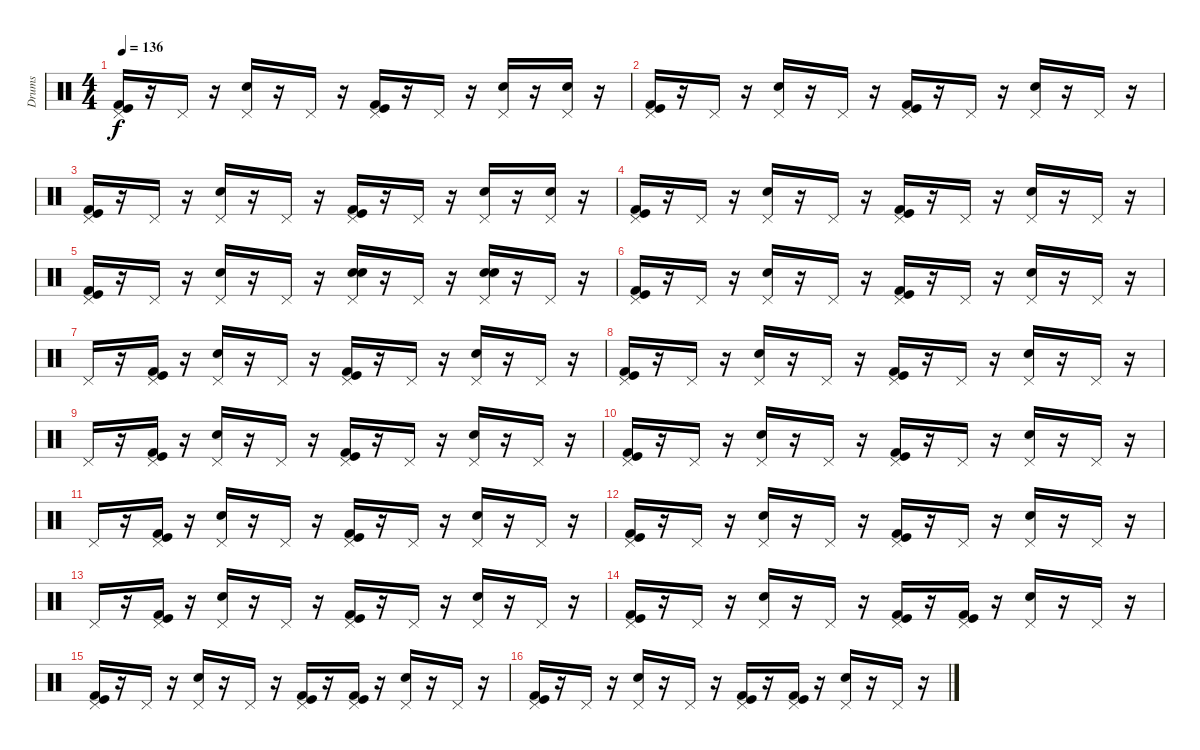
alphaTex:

\track ("Drums" "Drums") {instrument percussion}
\staff {score}
\articulation defaults
\ts (4 4)
\tempo 136
\clef neutral
\ks c
("Kick (hit) 2" "Kick (hit)" "Pedal Hi-Hat (hit)").16{dy f} r.16 "Pedal Hi-Hat (hit)".16 r.16 ("Snare (hit) 2" "Pedal Hi-Hat (hit)").16 r.16 "Pedal Hi-Hat (hit)".16 r.16 ("Kick (hit) 2" "Kick (hit)" "Pedal Hi-Hat (hit)").16 r.16 "Pedal Hi-Hat (hit)".16 r.16 ("Snare (hit) 2" "Pedal Hi-Hat (hit)").16 r.16 ("Snare (hit) 2" "Pedal Hi-Hat (hit)").16 r.16 |
("Kick (hit) 2" "Kick (hit)" "Pedal Hi-Hat (hit)").16 r.16 "Pedal Hi-Hat (hit)".16 r.16 ("Snare (hit) 2" "Pedal Hi-Hat (hit)").16 r.16 "Pedal Hi-Hat (hit)".16 r.16 ("Kick (hit) 2" "Kick (hit)" "Pedal Hi-Hat (hit)").16 r.16 "Pedal Hi-Hat (hit)".16 r.16 ("Snare (hit) 2" "Pedal Hi-Hat (hit)").16 r.16 "Pedal Hi-Hat (hit)".16 r.16 |
("Kick (hit) 2" "Kick (hit)" "Pedal Hi-Hat (hit)").16 r.16 "Pedal Hi-Hat (hit)".16 r.16 ("Snare (hit) 2" "Pedal Hi-Hat (hit)").16 r.16 "Pedal Hi-Hat (hit)".16 r.16 ("Kick (hit) 2" "Kick (hit)" "Pedal Hi-Hat (hit)").16 r.16 "Pedal Hi-Hat (hit)".16 r.16 ("Snare (hit) 2" "Pedal Hi-Hat (hit)").16 r.16 ("Snare (hit) 2" "Pedal Hi-Hat (hit)").16 r.16 |
("Kick (hit) 2" "Kick (hit)" "Pedal Hi-Hat (hit)").16 r.16 "Pedal Hi-Hat (hit)".16 r.16 ("Snare (hit) 2" "Pedal Hi-Hat (hit)").16 r.16 "Pedal Hi-Hat (hit)".16 r.16 ("Kick (hit) 2" "Kick (hit)" "Pedal Hi-Hat (hit)").16 r.16 "Pedal Hi-Hat (hit)".16 r.16 ("Snare (hit) 2" "Pedal Hi-Hat (hit)").16 r.16 "Pedal Hi-Hat (hit)".16 r.16 |
("Kick (hit) 2" "Kick (hit)" "Pedal Hi-Hat (hit)").16 r.16 "Pedal Hi-Hat (hit)".16 r.16 ("Snare (hit) 2" "Pedal Hi-Hat (hit)").16 r.16 "Pedal Hi-Hat (hit)".16 r.16 ("Snare (hit) 2" "Snare (hit) 2" "Pedal Hi-Hat (hit)").16 r.16 "Pedal Hi-Hat (hit)".16 r.16 ("Snare (hit) 2" "Snare (hit) 2" "Pedal Hi-Hat (hit)").16 r.16 "Pedal Hi-Hat (hit)".16 r.16 |
("Kick (hit) 2" "Kick (hit)" "Pedal Hi-Hat (hit)").16 r.16 "Pedal Hi-Hat (hit)".16 r.16 ("Snare (hit) 2" "Pedal Hi-Hat (hit)").16 r.16 "Pedal Hi-Hat (hit)".16 r.16 ("Kick (hit) 2" "Kick (hit)" "Pedal Hi-Hat (hit)").16 r.16 "Pedal Hi-Hat (hit)".16 r.16 ("Snare (hit) 2" "Pedal Hi-Hat (hit)").16 r.16 "Pedal Hi-Hat (hit)".16 r.16 |
"Pedal Hi-Hat (hit)".16 r.16 ("Kick (hit) 2" "Kick (hit)" "Pedal Hi-Hat (hit)").16 r.16 ("Snare (hit) 2" "Pedal Hi-Hat (hit)").16 r.16 "Pedal Hi-Hat (hit)".16 r.16 ("Kick (hit) 2" "Kick (hit)" "Pedal Hi-Hat (hit)").16 r.16 "Pedal Hi-Hat (hit)".16 r.16 ("Snare (hit) 2" "Pedal Hi-Hat (hit)").16 r.16 "Pedal Hi-Hat (hit)".16 r.16 |
("Kick (hit) 2" "Kick (hit)" "Pedal Hi-Hat (hit)").16 r.16 "Pedal Hi-Hat (hit)".16 r.16 ("Snare (hit) 2" "Pedal Hi-Hat (hit)").16 r.16 "Pedal Hi-Hat (hit)".16 r.16 ("Kick (hit) 2" "Kick (hit)" "Pedal Hi-Hat (hit)").16 r.16 "Pedal Hi-Hat (hit)".16 r.16 ("Snare (hit) 2" "Pedal Hi-Hat (hit)").16 r.16 "Pedal Hi-Hat (hit)".16 r.16 |
"Pedal Hi-Hat (hit)".16 r.16 ("Kick (hit) 2" "Kick (hit)" "Pedal Hi-Hat (hit)").16 r.16 ("Snare (hit) 2" "Pedal Hi-Hat (hit)").16 r.16 "Pedal Hi-Hat (hit)".16 r.16 ("Kick (hit) 2" "Kick (hit)" "Pedal Hi-Hat (hit)").16 r.16 "Pedal Hi-Hat (hit)".16 r.16 ("Snare (hit) 2" "Pedal Hi-Hat (hit)").16 r.16 "Pedal Hi-Hat (hit)".16 r.16 |
("Kick (hit) 2" "Kick (hit)" "Pedal Hi-Hat (hit)").16 r.16 "Pedal Hi-Hat (hit)".16 r.16 ("Snare (hit) 2" "Pedal Hi-Hat (hit)").16 r.16 "Pedal Hi-Hat (hit)".16 r.16 ("Kick (hit) 2" "Kick (hit)" "Pedal Hi-Hat (hit)").16 r.16 "Pedal Hi-Hat (hit)".16 r.16 ("Snare (hit) 2" "Pedal Hi-Hat (hit)").16 r.16 "Pedal Hi-Hat (hit)".16 r.16 |
"Pedal Hi-Hat (hit)".16 r.16 ("Kick (hit) 2" "Kick (hit)" "Pedal Hi-Hat (hit)").16 r.16 ("Snare (hit) 2" "Pedal Hi-Hat (hit)").16 r.16 "Pedal Hi-Hat (hit)".16 r.16 ("Kick (hit) 2" "Kick (hit)" "Pedal Hi-Hat (hit)").16 r.16 "Pedal Hi-Hat (hit)".16 r.16 ("Snare (hit) 2" "Pedal Hi-Hat (hit)").16 r.16 "Pedal Hi-Hat (hit)".16 r.16 |
("Kick (hit) 2" "Kick (hit)" "Pedal Hi-Hat (hit)").16 r.16 "Pedal Hi-Hat (hit)".16 r.16 ("Snare (hit) 2" "Pedal Hi-Hat (hit)").16 r.16 "Pedal Hi-Hat (hit)".16 r.16 ("Kick (hit) 2" "Kick (hit)" "Pedal Hi-Hat (hit)").16 r.16 "Pedal Hi-Hat (hit)".16 r.16 ("Snare (hit) 2" "Pedal Hi-Hat (hit)").16 r.16 "Pedal Hi-Hat (hit)".16 r.16 |
"Pedal Hi-Hat (hit)".16 r.16 ("Kick (hit) 2" "Kick (hit)" "Pedal Hi-Hat (hit)").16 r.16 ("Snare (hit) 2" "Pedal Hi-Hat (hit)").16 r.16 "Pedal Hi-Hat (hit)".16 r.16 ("Kick (hit) 2" "Kick (hit)" "Pedal Hi-Hat (hit)").16 r.16 "Pedal Hi-Hat (hit)".16 r.16 ("Snare (hit) 2" "Pedal Hi-Hat (hit)").16 r.16 "Pedal Hi-Hat (hit)".16 r.16 |
("Kick (hit) 2" "Kick (hit)" "Pedal Hi-Hat (hit)").16 r.16 "Pedal Hi-Hat (hit)".16 r.16 ("Electric Snare (hit)" "Pedal Hi-Hat (hit)").16 r.16 "Pedal Hi-Hat (hit)".16 r.16 ("Kick (hit) 2" "Kick (hit)" "Pedal Hi-Hat (hit)").16 r.16 ("Kick (hit) 2" "Kick (hit)" "Pedal Hi-Hat (hit)").16 r.16 ("Electric Snare (hit)" "Pedal Hi-Hat (hit)").16 r.16 "Pedal Hi-Hat (hit)".16 r.16 |
("Kick (hit) 2" "Kick (hit)" "Pedal Hi-Hat (hit)").16 r.16 "Pedal Hi-Hat (hit)".16 r.16 ("Electric Snare (hit)" "Pedal Hi-Hat (hit)").16 r.16 "Pedal Hi-Hat (hit)".16 r.16 ("Kick (hit) 2" "Kick (hit)" "Pedal Hi-Hat (hit)").16 r.16 ("Kick (hit) 2" "Kick (hit)" "Pedal Hi-Hat (hit)").16 r.16 ("Electric Snare (hit)" "Pedal Hi-Hat (hit)").16 r.16 "Pedal Hi-Hat (hit)".16 r.16 |
("Kick (hit) 2" "Kick (hit)" "Pedal Hi-Hat (hit)").16 r.16 "Pedal Hi-Hat (hit)".16 r.16 ("Electric Snare (hit)" "Pedal Hi-Hat (hit)").16 r.16 "Pedal Hi-Hat (hit)".16 r.16 ("Kick (hit) 2" "Kick (hit)" "Pedal Hi-Hat (hit)").16 r.16 ("Kick (hit) 2" "Kick (hit)" "Pedal Hi-Hat (hit)").16 r.16 ("Electric Snare (hit)" "Pedal Hi-Hat (hit)").16 r.16 "Pedal Hi-Hat (hit)".16 r.16
